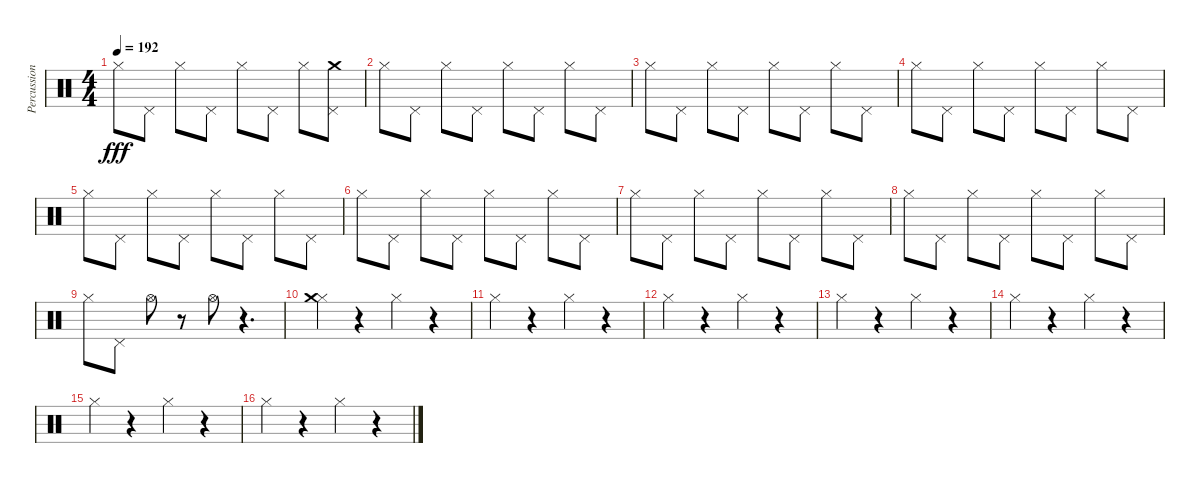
\track ("Percussion" "Percussion") {instrument percussion}
\staff {score}
\articulation defaults
\ts (4 4)
\tempo 192
\clef neutral
\ks c "Hi-Hat (closed)".8{dy fff} "Pedal Hi-Hat (hit)".8 "Hi-Hat (closed)".8 "Pedal Hi-Hat (hit)".8 "Hi-Hat (closed)".8 "Pedal Hi-Hat (hit)".8 "Hi-Hat (closed)".8
("Pedal Hi-Hat (hit)" "Crash medium (hit)").8 |
"Hi-Hat (closed)".8 "Pedal Hi-Hat (hit)".8 "Hi-Hat (closed)".8 "Pedal Hi-Hat (hit)".8 "Hi-Hat (closed)".8 "Pedal Hi-Hat (hit)".8 "Hi-Hat (closed)".8 "Pedal Hi-Hat (hit)".8 |
"Hi-Hat (closed)".8 "Pedal Hi-Hat (hit)".8 "Hi-Hat (closed)".8 "Pedal Hi-Hat (hit)".8 "Hi-Hat (closed)".8 "Pedal Hi-Hat (hit)".8 "Hi-Hat (closed)".8 "Pedal Hi-Hat (hit)".8 |
"Hi-Hat (closed)".8 "Pedal Hi-Hat (hit)".8 "Hi-Hat (closed)".8 "Pedal Hi-Hat (hit)".8 "Hi-Hat (closed)".8 "Pedal Hi-Hat (hit)".8 "Hi-Hat (closed)".8 "Pedal Hi-Hat (hit)".8 |
"Hi-Hat (closed)".8 "Pedal Hi-Hat (hit)".8 "Hi-Hat (closed)".8 "Pedal Hi-Hat (hit)".8 "Hi-Hat (closed)".8 "Pedal Hi-Hat (hit)".8 "Hi-Hat (closed)".8 "Pedal Hi-Hat (hit)".8 |
"Hi-Hat (closed)".8 "Pedal Hi-Hat (hit)".8 "Hi-Hat (closed)".8 "Pedal Hi-Hat (hit)".8 "Hi-Hat (closed)".8 "Pedal Hi-Hat (hit)".8 "Hi-Hat (closed)".8 "Pedal Hi-Hat (hit)".8 |
"Hi-Hat (closed)".8 "Pedal Hi-Hat (hit)".8 "Hi-Hat (closed)".8 "Pedal Hi-Hat (hit)".8 "Hi-Hat (closed)".8 "Pedal Hi-Hat (hit)".8 "Hi-Hat (closed)".8 "Pedal Hi-Hat (hit)".8 |
"Hi-Hat (closed)".8 "Pedal Hi-Hat (hit)".8 "Hi-Hat (closed)".8 "Pedal Hi-Hat (hit)".8 "Hi-Hat (closed)".8 "Pedal Hi-Hat (hit)".8 "Hi-Hat (closed)".8 "Pedal Hi-Hat (hit)".8 |
"Hi-Hat (closed)".8 "Pedal Hi-Hat (hit)".8 "Hi-Hat (open)".8 r.8 "Hi-Hat (open)".8 r.4{d} |
("Hi-Hat (closed)" "Crash medium (hit)").4 r.4 "Hi-Hat (closed)".4 r.4 |
"Hi-Hat (closed)".4 r.4 "Hi-Hat (closed)".4 r.4 |
"Hi-Hat (closed)".4 r.4 "Hi-Hat (closed)".4 r.4 |
"Hi-Hat (closed)".4 r.4 "Hi-Hat (closed)".4 r.4 |
"Hi-Hat (closed)".4 r.4 "Hi-Hat (closed)".4 r.4 |
"Hi-Hat (closed)".4 r.4 "Hi-Hat (closed)".4 r.4 |
"Hi-Hat (closed)".4 r.4 "Hi-Hat (closed)".4 r.4
